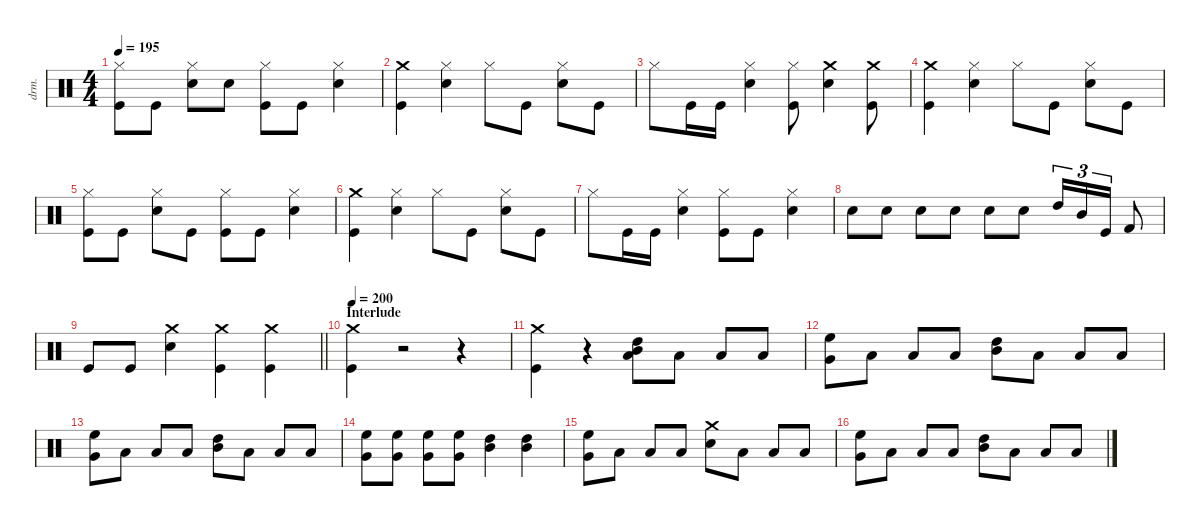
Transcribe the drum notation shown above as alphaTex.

\defaultSystemsLayout 4
\hideDynamics
\bracketExtendMode nobrackets
\otherSystemsTrackNameOrientation horizontal
\track ("Lars Ulrich (Drums)" "drm.") {instrument percussion}
\staff {score}
\articulation defaults
\ts (4 4)
\tempo 195
\clef neutral
\ks c
("Hi-Hat (closed)" "Kick (hit)").8{dy f beam Down} "Kick (hit)".8{beam Down} ("Snare (hit) 2" "Hi-Hat (closed)").8{beam Down} "Snare (hit) 2".8{beam Down} ("Hi-Hat (closed)" "Kick (hit)").8{beam Down} "Kick (hit)".8{beam Down} ("Snare (hit) 2" "Hi-Hat (closed)").4{beam Down} |
("Kick (hit)" "Crash medium (hit)").4{beam Down} ("Hi-Hat (closed)" "Snare (hit) 2").4{beam Down} "Hi-Hat (closed)".8{beam Down} "Kick (hit)".8{beam Down} ("Snare (hit) 2" "Hi-Hat (closed)").8{beam Down} "Kick (hit)".8{beam Down} |
"Hi-Hat (closed)".8{beam Down} "Kick (hit)".16{beam Down} "Kick (hit)".16{beam Down} ("Snare (hit) 2" "Hi-Hat (closed)").4{beam Down} ("Kick (hit)" "Hi-Hat (closed)").8{beam Down} ("Snare (hit) 2" "Crash medium (hit)").4{beam Down} ("Crash medium (hit)" "Kick (hit)").8{beam Down} |
("Kick (hit)" "Crash medium (hit)").4{beam Down} ("Hi-Hat (closed)" "Snare (hit) 2").4{beam Down} "Hi-Hat (closed)".8{beam Down} "Kick (hit)".8{beam Down} ("Snare (hit) 2" "Hi-Hat (closed)").8{beam Down} "Kick (hit)".8{beam Down} |
("Kick (hit)" "Hi-Hat (closed)").8{beam Down} "Kick (hit)".8{beam Down} ("Snare (hit) 2" "Hi-Hat (closed)").8{beam Down} "Kick (hit)".8{beam Down} ("Kick (hit)" "Hi-Hat (closed)").8{beam Down} "Kick (hit)".8{beam Down} ("Snare (hit) 2" "Hi-Hat (closed)").4{beam Down} |
("Kick (hit)" "Crash medium (hit)").4{beam Down} ("Hi-Hat (closed)" "Snare (hit) 2").4{beam Down} "Hi-Hat (closed)".8{beam Down} "Kick (hit)".8{beam Down} ("Snare (hit) 2" "Hi-Hat (closed)").8{beam Down} "Kick (hit)".8{beam Down} |
"Hi-Hat (closed)".8{beam Down} "Kick (hit)".16{beam Down} "Kick (hit)".16{beam Down} ("Snare (hit) 2" "Hi-Hat (closed)").4{beam Down} ("Kick (hit)" "Hi-Hat (closed)").8{beam Down} "Kick (hit)".8{beam Down} ("Snare (hit) 2" "Hi-Hat (closed)").4{beam Down} |
"Snare (hit) 2".8{beam Down} "Snare (hit) 2".8{beam Down} "Snare (hit) 2".8{beam Down} "Snare (hit) 2".8{beam Down} "Snare (hit) 2".8{beam Down} "Snare (hit) 2".8{beam Down} "High Tom (hit)".16{tu (3 2) beam Up} "Mid Tom (hit)".16{tu (3 2) beam Up} "Kick (hit)".16{tu (3 2) beam Up} "Kick (hit) 2".8{beam Up} |
\barLineRight lightlight "Kick (hit)".8{beam Up} "Kick (hit)".8{beam Up}
("Snare (hit) 2" "Crash medium (hit)").4{beam Down} ("Kick (hit)" "Crash medium (hit)").4{beam Down} ("Kick (hit)" "Crash medium (hit)").4{beam Down} |
\section ("" "Interlude")
\tempo 200
("Crash medium (hit)" "Kick (hit)").4{beam Down} r.2{beam Down} r.4{beam Down} |
("Kick (hit)" "Crash medium (hit)").4{beam Down} r.4{beam Down} ("High Tom (hit)" "Mid Tom (hit)" "Low Tom (hit)").8{beam Down} "Low Tom (hit)".8{beam Down} "Low Tom (hit)".8{beam Up} "Low Tom (hit)".8{beam Up} |
("High Floor Tom (hit)" "Very Low Tom (hit)").8{beam Down} "Low Tom (hit)".8{beam Down} "Low Tom (hit)".8{beam Up} "Low Tom (hit)".8{beam Up} ("Mid Tom (hit)" "High Tom (hit)").8{beam Down} "Low Tom (hit)".8{beam Down} "Low Tom (hit)".8{beam Up} "Low Tom (hit)".8{beam Up} |
("High Floor Tom (hit)" "Very Low Tom (hit)").8{beam Down} "Low Tom (hit)".8{beam Down} "Low Tom (hit)".8{beam Up} "Low Tom (hit)".8{beam Up} ("Mid Tom (hit)" "High Tom (hit)").8{beam Down} "Low Tom (hit)".8{beam Down} "Low Tom (hit)".8{beam Up} "Low Tom (hit)".8{beam Up} |
("High Floor Tom (hit)" "Very Low Tom (hit)").8{beam Down} ("High Floor Tom (hit)" "Very Low Tom (hit)").8{beam Down} ("High Floor Tom (hit)" "Very Low Tom (hit)").8{beam Down} ("High Floor Tom (hit)" "Very Low Tom (hit)").8{beam Down} ("Mid Tom (hit)" "High Tom (hit)").4{beam Down} ("Mid Tom (hit)" "High Tom (hit)").4{beam Down} |
("Very Low Tom (hit)" "High Floor Tom (hit)").8{beam Down} "Low Tom (hit)".8{beam Down} "Low Tom (hit)".8{beam Up} "Low Tom (hit)".8{beam Up} ("Crash medium (hit)" "Snare (hit) 2").8{beam Down} "Low Tom (hit)".8{beam Down} "Low Tom (hit)".8{beam Up} "Low Tom (hit)".8{beam Up} |
("High Floor Tom (hit)" "Very Low Tom (hit)").8{beam Down} "Low Tom (hit)".8{beam Down} "Low Tom (hit)".8{beam Up} "Low Tom (hit)".8{beam Up} ("Mid Tom (hit)" "High Tom (hit)").8{beam Down} "Low Tom (hit)".8{beam Down} "Low Tom (hit)".8{beam Up} "Low Tom (hit)".8{beam Up}
